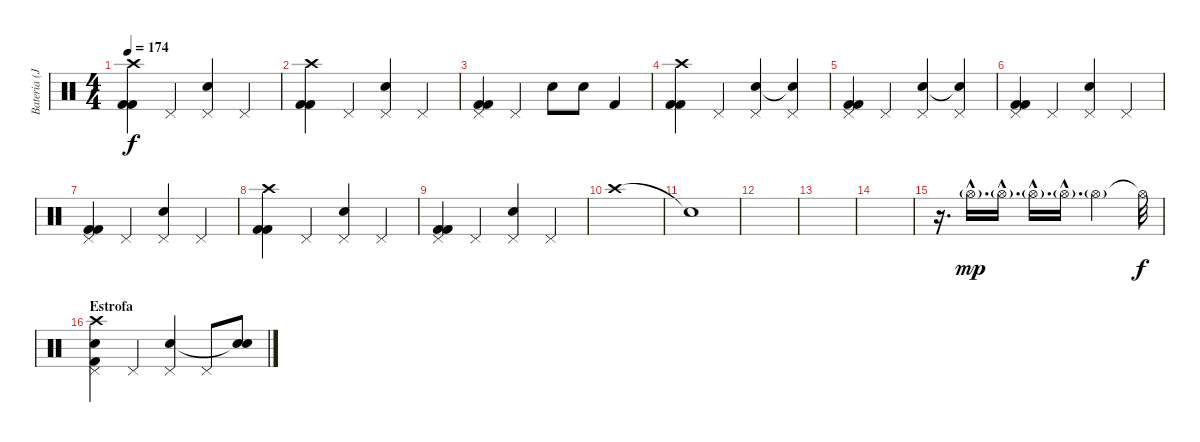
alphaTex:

\track ("Bateria (Jefrey Fischman)" "Bateria (J") {instrument percussion}
\staff {score}
\articulation defaults
\ts (4 4)
\tempo 174
\clef neutral
\ks c
("Crash high (hit)" "Kick (hit) 2" "Kick (hit) 2").4{dy f} "Pedal Hi-Hat (hit)".4 ("Pedal Hi-Hat (hit)" "Snare (hit) 2").4 "Pedal Hi-Hat (hit)".4 |
("Crash high (hit)" "Kick (hit) 2" "Kick (hit) 2").4 "Pedal Hi-Hat (hit)".4 ("Pedal Hi-Hat (hit)" "Snare (hit) 2").4 "Pedal Hi-Hat (hit)".4 |
("Pedal Hi-Hat (hit)" "Kick (hit) 2" "Kick (hit) 2").4 "Pedal Hi-Hat (hit)".4 "Snare (hit) 2".8 "Snare (hit) 2".8 "Kick (hit) 2".4 |
("Kick (hit) 2" "Kick (hit) 2" "Crash high (hit)").4 "Pedal Hi-Hat (hit)".4 ("Pedal Hi-Hat (hit)" "Snare (hit) 2").4 ("Pedal Hi-Hat (hit)" "Snare (hit)"{t}).4 |
("Pedal Hi-Hat (hit)" "Kick (hit) 2" "Kick (hit) 2").4 "Pedal Hi-Hat (hit)".4 ("Pedal Hi-Hat (hit)" "Snare (hit) 2").4 ("Pedal Hi-Hat (hit)" "Snare (hit)"{t}).4 |
("Pedal Hi-Hat (hit)" "Kick (hit) 2" "Kick (hit) 2").4 "Pedal Hi-Hat (hit)".4 ("Pedal Hi-Hat (hit)" "Snare (hit) 2").4 "Pedal Hi-Hat (hit)".4 |
("Pedal Hi-Hat (hit)" "Kick (hit) 2" "Kick (hit) 2").4 "Pedal Hi-Hat (hit)".4 ("Pedal Hi-Hat (hit)" "Snare (hit) 2").4 "Pedal Hi-Hat (hit)".4 |
("Crash high (hit)" "Kick (hit) 2" "Kick (hit) 2").4 "Pedal Hi-Hat (hit)".4 ("Pedal Hi-Hat (hit)" "Snare (hit) 2").4 "Pedal Hi-Hat (hit)".4 |
("Pedal Hi-Hat (hit)" "Kick (hit) 2" "Kick (hit) 2").4 "Pedal Hi-Hat (hit)".4 ("Pedal Hi-Hat (hit)" "Snare (hit) 2").4 "Pedal Hi-Hat (hit)".4 |
"Crash high (hit)".1 |
"Snare (hit)"{t}.1 |
|
|
|
r.16{d} "Hi-Hat (open)"{g hac}.16{d dy mp balance 16} "Hi-Hat (open)"{g hac}.16{d} "Hi-Hat (open)"{g hac}.16{d} "Hi-Hat (open)"{g hac}.16{d} "Hi-Hat (open)"{g}.2 "Hi-Hat (open)"{t}.32{dy f} |
\section ("" "Estrofa")
("Pedal Hi-Hat (hit)" "Snare (hit) 2" "Kick (hit) 2" "Crash high (hit)").4{balance 8} "Pedal Hi-Hat (hit)".4 ("Pedal Hi-Hat (hit)" "Snare (hit) 2").4 "Pedal Hi-Hat (hit)".8 ("Snare (hit) 2" "Snare (hit)"{t}).8
